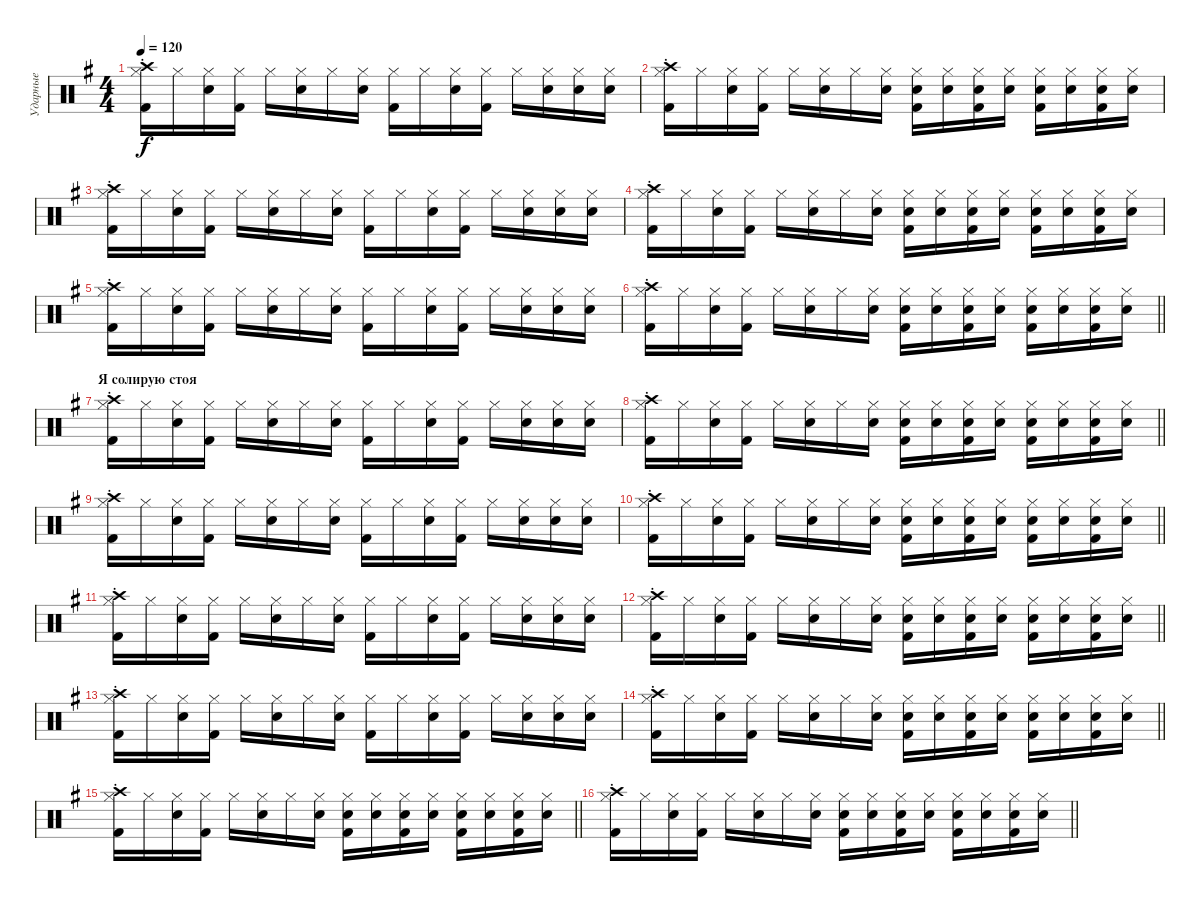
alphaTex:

\track ("Ударные" "Ударные") {instrument percussion}
\staff {score}
\articulation defaults
\ts (4 4)
\tempo 120
\clef neutral
\ks eminor
("Hi-Hat (closed)" "Crash high (hit)" "Kick (hit) 2"{st}).16{dy f} "Hi-Hat (closed)".16 ("Hi-Hat (closed)" "Snare (hit) 2").16 ("Hi-Hat (closed)" "Kick (hit) 2").16 "Hi-Hat (closed)".16 ("Hi-Hat (closed)" "Snare (hit) 2").16 "Hi-Hat (closed)".16 ("Hi-Hat (closed)" "Snare (hit) 2").16 ("Hi-Hat (closed)" "Kick (hit) 2").16 "Hi-Hat (closed)".16 ("Hi-Hat (closed)" "Snare (hit) 2").16 ("Hi-Hat (closed)" "Kick (hit) 2").16 "Hi-Hat (closed)".16 ("Hi-Hat (closed)" "Snare (hit) 2").16 ("Hi-Hat (closed)" "Snare (hit) 2").16 ("Hi-Hat (closed)" "Snare (hit) 2").16 |
("Hi-Hat (closed)" "Crash high (hit)" "Kick (hit) 2"{st}).16 "Hi-Hat (closed)".16 ("Hi-Hat (closed)" "Snare (hit) 2").16 ("Hi-Hat (closed)" "Kick (hit) 2").16 "Hi-Hat (closed)".16 ("Hi-Hat (closed)" "Snare (hit) 2").16 "Hi-Hat (closed)".16 ("Hi-Hat (closed)" "Snare (hit) 2").16 ("Hi-Hat (closed)" "Snare (hit) 2" "Kick (hit) 2").16 ("Hi-Hat (closed)" "Snare (hit) 2").16 ("Hi-Hat (closed)" "Snare (hit) 2" "Kick (hit) 2").16 ("Hi-Hat (closed)" "Snare (hit) 2").16 ("Hi-Hat (closed)" "Snare (hit) 2" "Kick (hit) 2").16 ("Hi-Hat (closed)" "Snare (hit) 2").16 ("Hi-Hat (closed)" "Snare (hit) 2" "Kick (hit) 2").16 ("Hi-Hat (closed)" "Snare (hit) 2").16 |
("Hi-Hat (closed)" "Crash high (hit)" "Kick (hit) 2"{st}).16 "Hi-Hat (closed)".16 ("Hi-Hat (closed)" "Snare (hit) 2").16 ("Hi-Hat (closed)" "Kick (hit) 2").16 "Hi-Hat (closed)".16 ("Hi-Hat (closed)" "Snare (hit) 2").16 "Hi-Hat (closed)".16 ("Hi-Hat (closed)" "Snare (hit) 2").16 ("Hi-Hat (closed)" "Kick (hit) 2").16 "Hi-Hat (closed)".16 ("Hi-Hat (closed)" "Snare (hit) 2").16 ("Hi-Hat (closed)" "Kick (hit) 2").16 "Hi-Hat (closed)".16 ("Hi-Hat (closed)" "Snare (hit) 2").16 ("Hi-Hat (closed)" "Snare (hit) 2").16 ("Hi-Hat (closed)" "Snare (hit) 2").16 |
("Hi-Hat (closed)" "Crash high (hit)" "Kick (hit) 2"{st}).16 "Hi-Hat (closed)".16 ("Hi-Hat (closed)" "Snare (hit) 2").16 ("Hi-Hat (closed)" "Kick (hit) 2").16 "Hi-Hat (closed)".16 ("Hi-Hat (closed)" "Snare (hit) 2").16 "Hi-Hat (closed)".16 ("Hi-Hat (closed)" "Snare (hit) 2").16 ("Hi-Hat (closed)" "Snare (hit) 2" "Kick (hit) 2").16 ("Hi-Hat (closed)" "Snare (hit) 2").16 ("Hi-Hat (closed)" "Snare (hit) 2" "Kick (hit) 2").16 ("Hi-Hat (closed)" "Snare (hit) 2").16 ("Hi-Hat (closed)" "Snare (hit) 2" "Kick (hit) 2").16 ("Hi-Hat (closed)" "Snare (hit) 2").16 ("Hi-Hat (closed)" "Snare (hit) 2" "Kick (hit) 2").16 ("Hi-Hat (closed)" "Snare (hit) 2").16 |
("Hi-Hat (closed)" "Crash high (hit)" "Kick (hit) 2"{st}).16 "Hi-Hat (closed)".16 ("Hi-Hat (closed)" "Snare (hit) 2").16 ("Hi-Hat (closed)" "Kick (hit) 2").16 "Hi-Hat (closed)".16 ("Hi-Hat (closed)" "Snare (hit) 2").16 "Hi-Hat (closed)".16 ("Hi-Hat (closed)" "Snare (hit) 2").16 ("Hi-Hat (closed)" "Kick (hit) 2").16 "Hi-Hat (closed)".16 ("Hi-Hat (closed)" "Snare (hit) 2").16 ("Hi-Hat (closed)" "Kick (hit) 2").16 "Hi-Hat (closed)".16 ("Hi-Hat (closed)" "Snare (hit) 2").16 ("Hi-Hat (closed)" "Snare (hit) 2").16 ("Hi-Hat (closed)" "Snare (hit) 2").16 |
\barLineRight lightlight
("Hi-Hat (closed)" "Crash high (hit)" "Kick (hit) 2"{st}).16 "Hi-Hat (closed)".16 ("Hi-Hat (closed)" "Snare (hit) 2").16 ("Hi-Hat (closed)" "Kick (hit) 2").16 "Hi-Hat (closed)".16 ("Hi-Hat (closed)" "Snare (hit) 2").16 "Hi-Hat (closed)".16 ("Hi-Hat (closed)" "Snare (hit) 2").16 ("Hi-Hat (closed)" "Snare (hit) 2" "Kick (hit) 2").16 ("Hi-Hat (closed)" "Snare (hit) 2").16 ("Hi-Hat (closed)" "Snare (hit) 2" "Kick (hit) 2").16 ("Hi-Hat (closed)" "Snare (hit) 2").16 ("Hi-Hat (closed)" "Snare (hit) 2" "Kick (hit) 2").16 ("Hi-Hat (closed)" "Snare (hit) 2").16 ("Hi-Hat (closed)" "Snare (hit) 2" "Kick (hit) 2").16 ("Hi-Hat (closed)" "Snare (hit) 2").16 |
\section ("" "Я солирую стоя")
("Hi-Hat (closed)" "Crash high (hit)" "Kick (hit) 2"{st}).16 "Hi-Hat (closed)".16 ("Hi-Hat (closed)" "Snare (hit) 2").16 ("Hi-Hat (closed)" "Kick (hit) 2").16 "Hi-Hat (closed)".16 ("Hi-Hat (closed)" "Snare (hit) 2").16 "Hi-Hat (closed)".16 ("Hi-Hat (closed)" "Snare (hit) 2").16 ("Hi-Hat (closed)" "Kick (hit) 2").16 "Hi-Hat (closed)".16 ("Hi-Hat (closed)" "Snare (hit) 2").16 ("Hi-Hat (closed)" "Kick (hit) 2").16 "Hi-Hat (closed)".16 ("Hi-Hat (closed)" "Snare (hit) 2").16 ("Hi-Hat (closed)" "Snare (hit) 2").16 ("Hi-Hat (closed)" "Snare (hit) 2").16 |
\barLineRight lightlight
("Hi-Hat (closed)" "Crash high (hit)" "Kick (hit) 2"{st}).16 "Hi-Hat (closed)".16 ("Hi-Hat (closed)" "Snare (hit) 2").16 ("Hi-Hat (closed)" "Kick (hit) 2").16 "Hi-Hat (closed)".16 ("Hi-Hat (closed)" "Snare (hit) 2").16 "Hi-Hat (closed)".16 ("Hi-Hat (closed)" "Snare (hit) 2").16 ("Hi-Hat (closed)" "Snare (hit) 2" "Kick (hit) 2").16 ("Hi-Hat (closed)" "Snare (hit) 2").16 ("Hi-Hat (closed)" "Snare (hit) 2" "Kick (hit) 2").16 ("Hi-Hat (closed)" "Snare (hit) 2").16 ("Hi-Hat (closed)" "Snare (hit) 2" "Kick (hit) 2").16 ("Hi-Hat (closed)" "Snare (hit) 2").16 ("Hi-Hat (closed)" "Snare (hit) 2" "Kick (hit) 2").16 ("Hi-Hat (closed)" "Snare (hit) 2").16 |
("Hi-Hat (closed)" "Crash high (hit)" "Kick (hit) 2"{st}).16 "Hi-Hat (closed)".16 ("Hi-Hat (closed)" "Snare (hit) 2").16 ("Hi-Hat (closed)" "Kick (hit) 2").16 "Hi-Hat (closed)".16 ("Hi-Hat (closed)" "Snare (hit) 2").16 "Hi-Hat (closed)".16 ("Hi-Hat (closed)" "Snare (hit) 2").16 ("Hi-Hat (closed)" "Kick (hit) 2").16 "Hi-Hat (closed)".16 ("Hi-Hat (closed)" "Snare (hit) 2").16 ("Hi-Hat (closed)" "Kick (hit) 2").16 "Hi-Hat (closed)".16 ("Hi-Hat (closed)" "Snare (hit) 2").16 ("Hi-Hat (closed)" "Snare (hit) 2").16 ("Hi-Hat (closed)" "Snare (hit) 2").16 |
\barLineRight lightlight
("Hi-Hat (closed)" "Crash high (hit)" "Kick (hit) 2"{st}).16 "Hi-Hat (closed)".16 ("Hi-Hat (closed)" "Snare (hit) 2").16 ("Hi-Hat (closed)" "Kick (hit) 2").16 "Hi-Hat (closed)".16 ("Hi-Hat (closed)" "Snare (hit) 2").16 "Hi-Hat (closed)".16 ("Hi-Hat (closed)" "Snare (hit) 2").16 ("Hi-Hat (closed)" "Snare (hit) 2" "Kick (hit) 2").16 ("Hi-Hat (closed)" "Snare (hit) 2").16 ("Hi-Hat (closed)" "Snare (hit) 2" "Kick (hit) 2").16 ("Hi-Hat (closed)" "Snare (hit) 2").16 ("Hi-Hat (closed)" "Snare (hit) 2" "Kick (hit) 2").16 ("Hi-Hat (closed)" "Snare (hit) 2").16 ("Hi-Hat (closed)" "Snare (hit) 2" "Kick (hit) 2").16 ("Hi-Hat (closed)" "Snare (hit) 2").16 |
("Hi-Hat (closed)" "Crash high (hit)" "Kick (hit) 2"{st}).16 "Hi-Hat (closed)".16 ("Hi-Hat (closed)" "Snare (hit) 2").16 ("Hi-Hat (closed)" "Kick (hit) 2").16 "Hi-Hat (closed)".16 ("Hi-Hat (closed)" "Snare (hit) 2").16 "Hi-Hat (closed)".16 ("Hi-Hat (closed)" "Snare (hit) 2").16 ("Hi-Hat (closed)" "Kick (hit) 2").16 "Hi-Hat (closed)".16 ("Hi-Hat (closed)" "Snare (hit) 2").16 ("Hi-Hat (closed)" "Kick (hit) 2").16 "Hi-Hat (closed)".16 ("Hi-Hat (closed)" "Snare (hit) 2").16 ("Hi-Hat (closed)" "Snare (hit) 2").16 ("Hi-Hat (closed)" "Snare (hit) 2").16 |
\barLineRight lightlight
("Hi-Hat (closed)" "Crash high (hit)" "Kick (hit) 2"{st}).16 "Hi-Hat (closed)".16 ("Hi-Hat (closed)" "Snare (hit) 2").16 ("Hi-Hat (closed)" "Kick (hit) 2").16 "Hi-Hat (closed)".16 ("Hi-Hat (closed)" "Snare (hit) 2").16 "Hi-Hat (closed)".16 ("Hi-Hat (closed)" "Snare (hit) 2").16 ("Hi-Hat (closed)" "Snare (hit) 2" "Kick (hit) 2").16 ("Hi-Hat (closed)" "Snare (hit) 2").16 ("Hi-Hat (closed)" "Snare (hit) 2" "Kick (hit) 2").16 ("Hi-Hat (closed)" "Snare (hit) 2").16 ("Hi-Hat (closed)" "Snare (hit) 2" "Kick (hit) 2").16 ("Hi-Hat (closed)" "Snare (hit) 2").16 ("Hi-Hat (closed)" "Snare (hit) 2" "Kick (hit) 2").16 ("Hi-Hat (closed)" "Snare (hit) 2").16 |
("Hi-Hat (closed)" "Crash high (hit)" "Kick (hit) 2"{st}).16 "Hi-Hat (closed)".16 ("Hi-Hat (closed)" "Snare (hit) 2").16 ("Hi-Hat (closed)" "Kick (hit) 2").16 "Hi-Hat (closed)".16 ("Hi-Hat (closed)" "Snare (hit) 2").16 "Hi-Hat (closed)".16 ("Hi-Hat (closed)" "Snare (hit) 2").16 ("Hi-Hat (closed)" "Kick (hit) 2").16 "Hi-Hat (closed)".16 ("Hi-Hat (closed)" "Snare (hit) 2").16 ("Hi-Hat (closed)" "Kick (hit) 2").16 "Hi-Hat (closed)".16 ("Hi-Hat (closed)" "Snare (hit) 2").16 ("Hi-Hat (closed)" "Snare (hit) 2").16 ("Hi-Hat (closed)" "Snare (hit) 2").16 |
\barLineRight lightlight
("Hi-Hat (closed)" "Crash high (hit)" "Kick (hit) 2"{st}).16 "Hi-Hat (closed)".16 ("Hi-Hat (closed)" "Snare (hit) 2").16 ("Hi-Hat (closed)" "Kick (hit) 2").16 "Hi-Hat (closed)".16 ("Hi-Hat (closed)" "Snare (hit) 2").16 "Hi-Hat (closed)".16 ("Hi-Hat (closed)" "Snare (hit) 2").16 ("Hi-Hat (closed)" "Snare (hit) 2" "Kick (hit) 2").16 ("Hi-Hat (closed)" "Snare (hit) 2").16 ("Hi-Hat (closed)" "Snare (hit) 2" "Kick (hit) 2").16 ("Hi-Hat (closed)" "Snare (hit) 2").16 ("Hi-Hat (closed)" "Snare (hit) 2" "Kick (hit) 2").16 ("Hi-Hat (closed)" "Snare (hit) 2").16 ("Hi-Hat (closed)" "Snare (hit) 2" "Kick (hit) 2").16 ("Hi-Hat (closed)" "Snare (hit) 2").16 |
\barLineRight lightlight
("Hi-Hat (closed)" "Crash high (hit)" "Kick (hit) 2"{st}).16 "Hi-Hat (closed)".16 ("Hi-Hat (closed)" "Snare (hit) 2").16 ("Hi-Hat (closed)" "Kick (hit) 2").16 "Hi-Hat (closed)".16 ("Hi-Hat (closed)" "Snare (hit) 2").16 "Hi-Hat (closed)".16 ("Hi-Hat (closed)" "Snare (hit) 2").16 ("Hi-Hat (closed)" "Snare (hit) 2" "Kick (hit) 2").16 ("Hi-Hat (closed)" "Snare (hit) 2").16 ("Hi-Hat (closed)" "Snare (hit) 2" "Kick (hit) 2").16 ("Hi-Hat (closed)" "Snare (hit) 2").16 ("Hi-Hat (closed)" "Snare (hit) 2" "Kick (hit) 2").16 ("Hi-Hat (closed)" "Snare (hit) 2").16 ("Hi-Hat (closed)" "Snare (hit) 2" "Kick (hit) 2").16 ("Hi-Hat (closed)" "Snare (hit) 2").16 |
\barLineRight lightlight
("Hi-Hat (closed)" "Crash high (hit)" "Kick (hit) 2"{st}).16 "Hi-Hat (closed)".16 ("Hi-Hat (closed)" "Snare (hit) 2").16 ("Hi-Hat (closed)" "Kick (hit) 2").16 "Hi-Hat (closed)".16 ("Hi-Hat (closed)" "Snare (hit) 2").16 "Hi-Hat (closed)".16 ("Hi-Hat (closed)" "Snare (hit) 2").16 ("Hi-Hat (closed)" "Snare (hit) 2" "Kick (hit) 2").16 ("Hi-Hat (closed)" "Snare (hit) 2").16 ("Hi-Hat (closed)" "Snare (hit) 2" "Kick (hit) 2").16 ("Hi-Hat (closed)" "Snare (hit) 2").16 ("Hi-Hat (closed)" "Snare (hit) 2" "Kick (hit) 2").16 ("Hi-Hat (closed)" "Snare (hit) 2").16 ("Hi-Hat (closed)" "Snare (hit) 2" "Kick (hit) 2").16 ("Hi-Hat (closed)" "Snare (hit) 2").16
